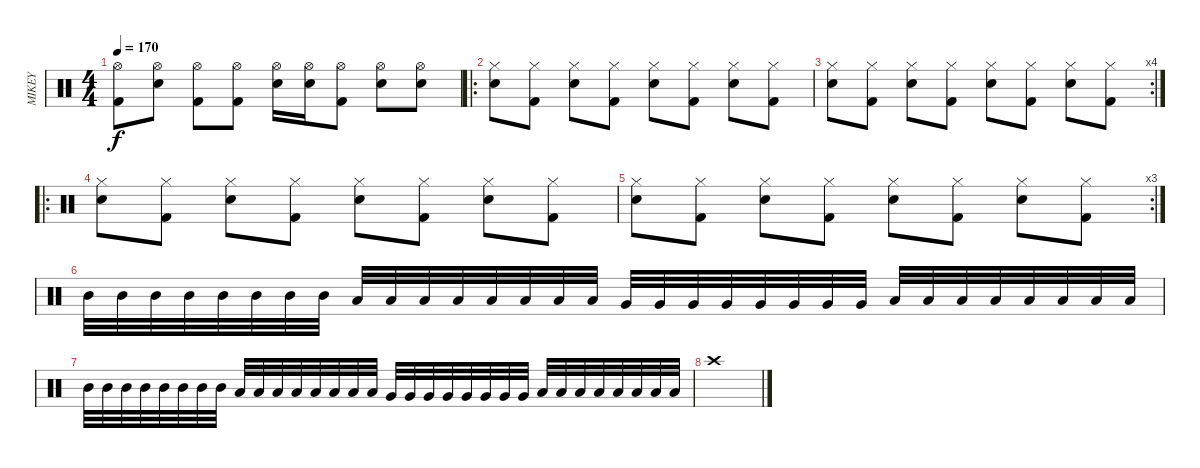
\track ("MIKEY" "MIKEY") {instrument percussion}
\staff {score}
\articulation defaults
\ts (4 4)
\tempo 170
\clef neutral
\ks c
("Hi-Hat (open)" "Kick (hit) 2").8{dy f} ("Hi-Hat (open)" "Electric Snare (hit)").8 ("Hi-Hat (open)" "Kick (hit) 2").8 ("Hi-Hat (open)" "Kick (hit) 2").8 ("Hi-Hat (open)" "Electric Snare (hit)").16 ("Hi-Hat (open)" "Electric Snare (hit)").16 ("Hi-Hat (open)" "Kick (hit) 2").8 ("Hi-Hat (open)" "Electric Snare (hit)").8 ("Hi-Hat (open)" "Electric Snare (hit)").8 |
\ro
("Hi-Hat (closed)" "Electric Snare (hit)").8 ("Hi-Hat (closed)" "Kick (hit) 2").8 ("Hi-Hat (closed)" "Electric Snare (hit)").8 ("Hi-Hat (closed)" "Kick (hit) 2").8 ("Hi-Hat (closed)" "Electric Snare (hit)").8 ("Hi-Hat (closed)" "Kick (hit) 2").8 ("Hi-Hat (closed)" "Electric Snare (hit)").8 ("Hi-Hat (closed)" "Kick (hit) 2").8 |
\rc 4
("Hi-Hat (closed)" "Electric Snare (hit)").8 ("Hi-Hat (closed)" "Kick (hit) 2").8 ("Hi-Hat (closed)" "Electric Snare (hit)").8 ("Hi-Hat (closed)" "Kick (hit) 2").8 ("Hi-Hat (closed)" "Electric Snare (hit)").8 ("Hi-Hat (closed)" "Kick (hit) 2").8 ("Hi-Hat (closed)" "Electric Snare (hit)").8 ("Hi-Hat (closed)" "Kick (hit) 2").8 |
\ro
("Hi-Hat (closed)" "Electric Snare (hit)").8 ("Hi-Hat (closed)" "Kick (hit) 2").8 ("Hi-Hat (closed)" "Electric Snare (hit)").8 ("Hi-Hat (closed)" "Kick (hit) 2").8 ("Hi-Hat (closed)" "Electric Snare (hit)").8 ("Hi-Hat (closed)" "Kick (hit) 2").8 ("Hi-Hat (closed)" "Electric Snare (hit)").8 ("Hi-Hat (closed)" "Kick (hit) 2").8 |
\rc 3
("Hi-Hat (closed)" "Electric Snare (hit)").8 ("Hi-Hat (closed)" "Kick (hit) 2").8 ("Hi-Hat (closed)" "Electric Snare (hit)").8 ("Hi-Hat (closed)" "Kick (hit) 2").8 ("Hi-Hat (closed)" "Electric Snare (hit)").8 ("Hi-Hat (closed)" "Kick (hit) 2").8 ("Hi-Hat (closed)" "Electric Snare (hit)").8 ("Hi-Hat (closed)" "Kick (hit) 2").8 |
"Mid Tom (hit)".32 "Mid Tom (hit)".32 "Mid Tom (hit)".32 "Mid Tom (hit)".32 "Mid Tom (hit)".32 "Mid Tom (hit)".32 "Mid Tom (hit)".32 "Mid Tom (hit)".32 "Low Tom (hit)".32 "Low Tom (hit)".32 "Low Tom (hit)".32 "Low Tom (hit)".32 "Low Tom (hit)".32 "Low Tom (hit)".32 "Low Tom (hit)".32 "Low Tom (hit)".32 "Very Low Tom (hit)".32 "Very Low Tom (hit)".32 "Very Low Tom (hit)".32 "Very Low Tom (hit)".32 "Very Low Tom (hit)".32 "Very Low Tom (hit)".32 "Very Low Tom (hit)".32 "Very Low Tom (hit)".32 "Low Floor Tom (hit)".32 "Low Floor Tom (hit)".32 "Low Floor Tom (hit)".32 "Low Floor Tom (hit)".32 "Low Floor Tom (hit)".32 "Low Floor Tom (hit)".32 "Low Floor Tom (hit)".32 "Low Floor Tom (hit)".32 |
"Mid Tom (hit)".32 "Mid Tom (hit)".32 "Mid Tom (hit)".32 "Mid Tom (hit)".32 "Mid Tom (hit)".32 "Mid Tom (hit)".32 "Mid Tom (hit)".32 "Mid Tom (hit)".32 "Low Tom (hit)".32 "Low Tom (hit)".32 "Low Tom (hit)".32 "Low Tom (hit)".32 "Low Tom (hit)".32 "Low Tom (hit)".32 "Low Tom (hit)".32 "Low Tom (hit)".32 "Very Low Tom (hit)".32 "Very Low Tom (hit)".32 "Very Low Tom (hit)".32 "Very Low Tom (hit)".32 "Very Low Tom (hit)".32 "Very Low Tom (hit)".32 "Very Low Tom (hit)".32 "Very Low Tom (hit)".32 "Low Floor Tom (hit)".32 "Low Floor Tom (hit)".32 "Low Floor Tom (hit)".32 "Low Floor Tom (hit)".32 "Low Floor Tom (hit)".32 "Low Floor Tom (hit)".32 "Low Floor Tom (hit)".32 "Low Floor Tom (hit)".32 |
"Crash high (hit)".1
